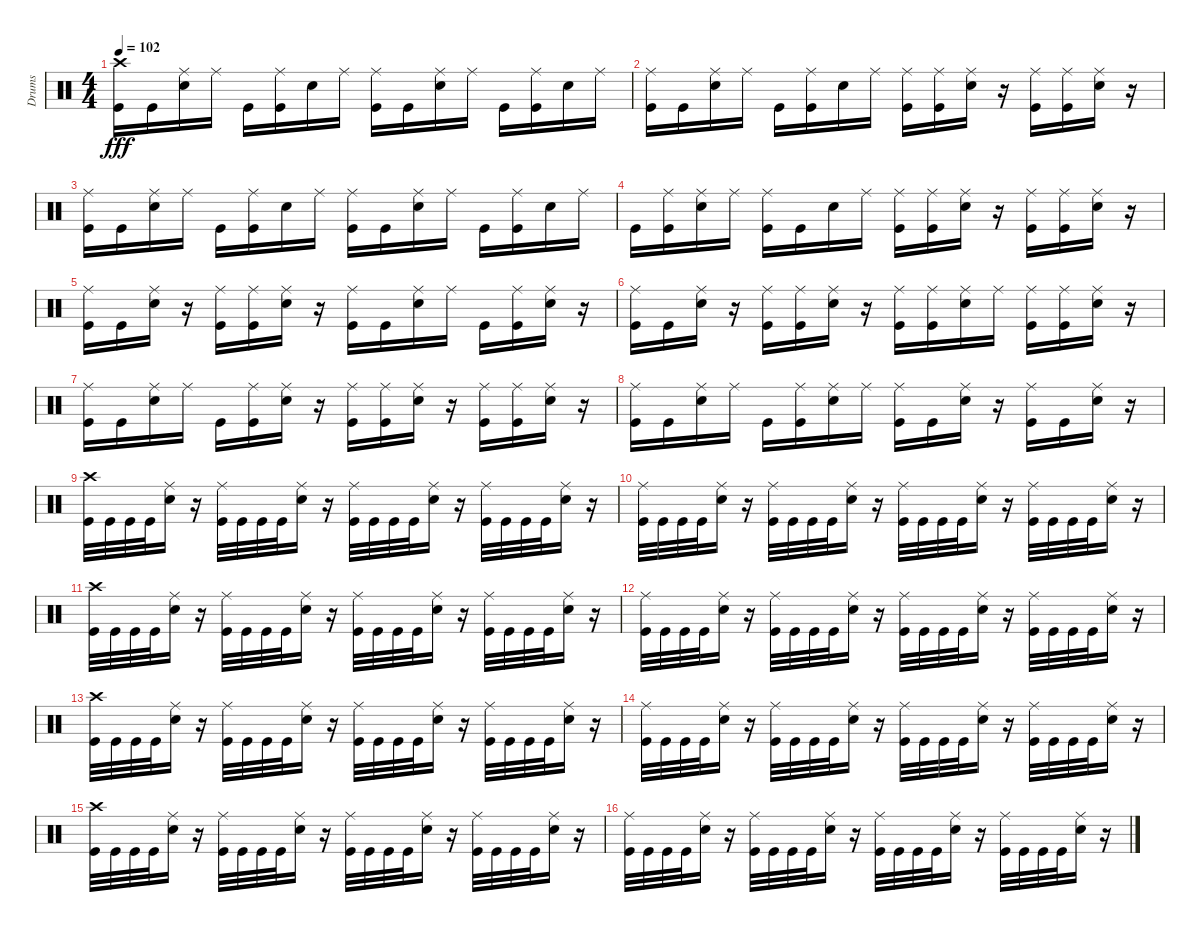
\track ("Drums" "Drums") {instrument percussion}
\staff {score}
\articulation defaults
\ts (4 4)
\tempo 102
\clef neutral
\ks c
("Crash high (hit)" "Kick (hit)").16{dy fff} "Kick (hit)".16 ("Ride (middle)" "Snare (hit) 2").16 "Ride (middle)".16 "Kick (hit)".16 ("Ride (middle)" "Kick (hit)").16 "Snare (hit) 2".16 "Ride (middle)".16 ("Ride (middle)" "Kick (hit)").16 "Kick (hit)".16 ("Ride (middle)" "Snare (hit) 2").16 "Ride (middle)".16 "Kick (hit)".16 ("Ride (middle)" "Kick (hit)").16 "Snare (hit) 2".16 "Ride (middle)".16 |
("Ride (middle)" "Kick (hit)").16 "Kick (hit)".16 ("Snare (hit) 2" "Ride (middle)").16 "Ride (middle)".16 "Kick (hit)".16 ("Kick (hit)" "Ride (middle)").16 "Snare (hit) 2".16 "Ride (middle)".16 ("Kick (hit)" "Ride (middle)").16 ("Ride (middle)" "Kick (hit)").16 ("Ride (middle)" "Snare (hit) 2").16 r.16 ("Ride (middle)" "Kick (hit)").16 ("Ride (middle)" "Kick (hit)").16 ("Ride (middle)" "Snare (hit) 2").16 r.16 |
("Ride (middle)" "Kick (hit)").16 "Kick (hit)".16 ("Snare (hit) 2" "Ride (middle)").16 "Ride (middle)".16 "Kick (hit)".16 ("Kick (hit)" "Ride (middle)").16 "Snare (hit) 2".16 "Ride (middle)".16 ("Kick (hit)" "Ride (middle)").16 "Kick (hit)".16 ("Snare (hit) 2" "Ride (middle)").16 "Ride (middle)".16 "Kick (hit)".16 ("Kick (hit)" "Ride (middle)").16 "Snare (hit) 2".16 "Ride (middle)".16 |
"Kick (hit)".16 ("Ride (middle)" "Kick (hit)").16 ("Ride (middle)" "Snare (hit) 2").16 "Ride (middle)".16 ("Ride (middle)" "Kick (hit)").16 "Kick (hit)".16 "Snare (hit) 2".16 "Ride (middle)".16 ("Ride (middle)" "Kick (hit)").16 ("Kick (hit)" "Ride (middle)").16 ("Ride (middle)" "Snare (hit) 2").16 r.16 ("Kick (hit)" "Ride (middle)").16 ("Kick (hit)" "Ride (middle)").16 ("Ride (middle)" "Snare (hit) 2").16 r.16 |
("Ride (middle)" "Kick (hit)").16 "Kick (hit)".16 ("Ride (middle)" "Snare (hit) 2").16 r.16 ("Ride (middle)" "Kick (hit)").16 ("Ride (middle)" "Kick (hit)").16 ("Ride (middle)" "Snare (hit) 2").16 r.16 ("Ride (middle)" "Kick (hit)").16 "Kick (hit)".16 ("Ride (middle)" "Snare (hit) 2").16 "Ride (middle)".16 "Kick (hit)".16 ("Ride (middle)" "Kick (hit)").16 ("Ride (middle)" "Snare (hit) 2").16 r.16 |
("Ride (middle)" "Kick (hit)").16 "Kick (hit)".16 ("Ride (middle)" "Snare (hit) 2").16 r.16 ("Ride (middle)" "Kick (hit)").16 ("Ride (middle)" "Kick (hit)").16 ("Ride (middle)" "Snare (hit) 2").16 r.16 ("Ride (middle)" "Kick (hit)").16 ("Ride (middle)" "Kick (hit)").16 ("Ride (middle)" "Snare (hit) 2").16 "Ride (middle)".16 ("Ride (middle)" "Kick (hit)").16 ("Ride (middle)" "Kick (hit)").16 ("Ride (middle)" "Snare (hit) 2").16 r.16 |
("Ride (middle)" "Kick (hit)").16 "Kick (hit)".16 ("Ride (middle)" "Snare (hit) 2").16 "Ride (middle)".16 "Kick (hit)".16 ("Ride (middle)" "Kick (hit)").16 ("Ride (middle)" "Snare (hit) 2").16 r.16 ("Ride (middle)" "Kick (hit)").16 ("Ride (middle)" "Kick (hit)").16 ("Ride (middle)" "Snare (hit) 2").16 r.16 ("Ride (middle)" "Kick (hit)").16 ("Ride (middle)" "Kick (hit)").16 ("Ride (middle)" "Snare (hit) 2").16 r.16 |
("Ride (middle)" "Kick (hit)").16 "Kick (hit)".16 ("Ride (middle)" "Snare (hit) 2").16 "Ride (middle)".16 "Kick (hit)".16 ("Ride (middle)" "Kick (hit)").16 ("Ride (middle)" "Snare (hit) 2").16 "Ride (middle)".16 ("Ride (middle)" "Kick (hit)").16 "Kick (hit)".16 ("Ride (middle)" "Snare (hit) 2").16 r.16 ("Ride (middle)" "Kick (hit)").16 "Kick (hit)".16 ("Ride (middle)" "Snare (hit) 2").16 r.16 |
("Crash high (hit)" "Kick (hit)").32 "Kick (hit)".32 "Kick (hit)".32 "Kick (hit)".32 ("Ride (middle)" "Snare (hit) 2").16 r.16 ("Ride (middle)" "Kick (hit)").32 "Kick (hit)".32 "Kick (hit)".32 "Kick (hit)".32 ("Ride (middle)" "Snare (hit) 2").16 r.16 ("Ride (middle)" "Kick (hit)").32 "Kick (hit)".32 "Kick (hit)".32 "Kick (hit)".32 ("Ride (middle)" "Snare (hit) 2").16 r.16 ("Ride (middle)" "Kick (hit)").32 "Kick (hit)".32 "Kick (hit)".32 "Kick (hit)".32 ("Ride (middle)" "Snare (hit) 2").16 r.16 |
("Ride (middle)" "Kick (hit)").32 "Kick (hit)".32 "Kick (hit)".32 "Kick (hit)".32 ("Snare (hit) 2" "Ride (middle)").16 r.16 ("Kick (hit)" "Ride (middle)").32 "Kick (hit)".32 "Kick (hit)".32 "Kick (hit)".32 ("Snare (hit) 2" "Ride (middle)").16 r.16 ("Kick (hit)" "Ride (middle)").32 "Kick (hit)".32 "Kick (hit)".32 "Kick (hit)".32 ("Snare (hit) 2" "Ride (middle)").16 r.16 ("Kick (hit)" "Ride (middle)").32 "Kick (hit)".32 "Kick (hit)".32 "Kick (hit)".32 ("Snare (hit) 2" "Ride (middle)").16 r.16 |
("Kick (hit)" "Crash high (hit)").32 "Kick (hit)".32 "Kick (hit)".32 "Kick (hit)".32 ("Snare (hit) 2" "Ride (middle)").16 r.16 ("Kick (hit)" "Ride (middle)").32 "Kick (hit)".32 "Kick (hit)".32 "Kick (hit)".32 ("Snare (hit) 2" "Ride (middle)").16 r.16 ("Kick (hit)" "Ride (middle)").32 "Kick (hit)".32 "Kick (hit)".32 "Kick (hit)".32 ("Snare (hit) 2" "Ride (middle)").16 r.16 ("Kick (hit)" "Ride (middle)").32 "Kick (hit)".32 "Kick (hit)".32 "Kick (hit)".32 ("Snare (hit) 2" "Ride (middle)").16 r.16 |
("Kick (hit)" "Ride (middle)").32 "Kick (hit)".32 "Kick (hit)".32 "Kick (hit)".32 ("Ride (middle)" "Snare (hit) 2").16 r.16 ("Ride (middle)" "Kick (hit)").32 "Kick (hit)".32 "Kick (hit)".32 "Kick (hit)".32 ("Ride (middle)" "Snare (hit) 2").16 r.16 ("Ride (middle)" "Kick (hit)").32 "Kick (hit)".32 "Kick (hit)".32 "Kick (hit)".32 ("Ride (middle)" "Snare (hit) 2").16 r.16 ("Ride (middle)" "Kick (hit)").32 "Kick (hit)".32 "Kick (hit)".32 "Kick (hit)".32 ("Ride (middle)" "Snare (hit) 2").16 r.16 |
("Kick (hit)" "Crash high (hit)").32{volume 9} "Kick (hit)".32 "Kick (hit)".32{volume 9} "Kick (hit)".32 ("Snare (hit) 2" "Ride (middle)").16{volume 9} r.16 ("Kick (hit)" "Ride (middle)").32{volume 9} "Kick (hit)".32 "Kick (hit)".32{volume 8} "Kick (hit)".32 ("Snare (hit) 2" "Ride (middle)").16{volume 8} r.16 ("Kick (hit)" "Ride (middle)").32{volume 8} "Kick (hit)".32 "Kick (hit)".32{volume 8} "Kick (hit)".32 ("Snare (hit) 2" "Ride (middle)").16{volume 8} r.16 ("Kick (hit)" "Ride (middle)").32{volume 8} "Kick (hit)".32 "Kick (hit)".32{volume 8} "Kick (hit)".32 ("Snare (hit) 2" "Ride (middle)").16{volume 8} r.16 |
("Kick (hit)" "Ride (middle)").32{volume 8} "Kick (hit)".32 "Kick (hit)".32{volume 8} "Kick (hit)".32 ("Ride (middle)" "Snare (hit) 2").16{volume 8} r.16 ("Ride (middle)" "Kick (hit)").32{volume 8} "Kick (hit)".32 "Kick (hit)".32{volume 8} "Kick (hit)".32 ("Ride (middle)" "Snare (hit) 2").16{volume 8} r.16 ("Ride (middle)" "Kick (hit)").32{volume 8} "Kick (hit)".32 "Kick (hit)".32{volume 8} "Kick (hit)".32 ("Ride (middle)" "Snare (hit) 2").16{volume 8} r.16 ("Ride (middle)" "Kick (hit)").32{volume 8} "Kick (hit)".32 "Kick (hit)".32{volume 8} "Kick (hit)".32 ("Ride (middle)" "Snare (hit) 2").16{volume 8} r.16 |
("Kick (hit)" "Crash high (hit)").32{volume 8} "Kick (hit)".32 "Kick (hit)".32{volume 8} "Kick (hit)".32 ("Snare (hit) 2" "Ride (middle)").16{volume 8} r.16 ("Kick (hit)" "Ride (middle)").32{volume 8} "Kick (hit)".32 "Kick (hit)".32{volume 8} "Kick (hit)".32 ("Snare (hit) 2" "Ride (middle)").16{volume 8} r.16 ("Kick (hit)" "Ride (middle)").32{volume 8} "Kick (hit)".32 "Kick (hit)".32{volume 8} "Kick (hit)".32 ("Snare (hit) 2" "Ride (middle)").16{volume 7} r.16 ("Kick (hit)" "Ride (middle)").32{volume 7} "Kick (hit)".32 "Kick (hit)".32{volume 7} "Kick (hit)".32 ("Snare (hit) 2" "Ride (middle)").16{volume 7} r.16 |
("Kick (hit)" "Ride (middle)").32{volume 7} "Kick (hit)".32 "Kick (hit)".32{volume 7} "Kick (hit)".32 ("Ride (middle)" "Snare (hit) 2").16{volume 7} r.16 ("Ride (middle)" "Kick (hit)").32{volume 7} "Kick (hit)".32 "Kick (hit)".32{volume 7} "Kick (hit)".32 ("Ride (middle)" "Snare (hit) 2").16{volume 7} r.16 ("Ride (middle)" "Kick (hit)").32{volume 7} "Kick (hit)".32 "Kick (hit)".32{volume 7} "Kick (hit)".32 ("Ride (middle)" "Snare (hit) 2").16{volume 7} r.16 ("Ride (middle)" "Kick (hit)").32{volume 7} "Kick (hit)".32 "Kick (hit)".32{volume 7} "Kick (hit)".32 ("Ride (middle)" "Snare (hit) 2").16{volume 7} r.16
